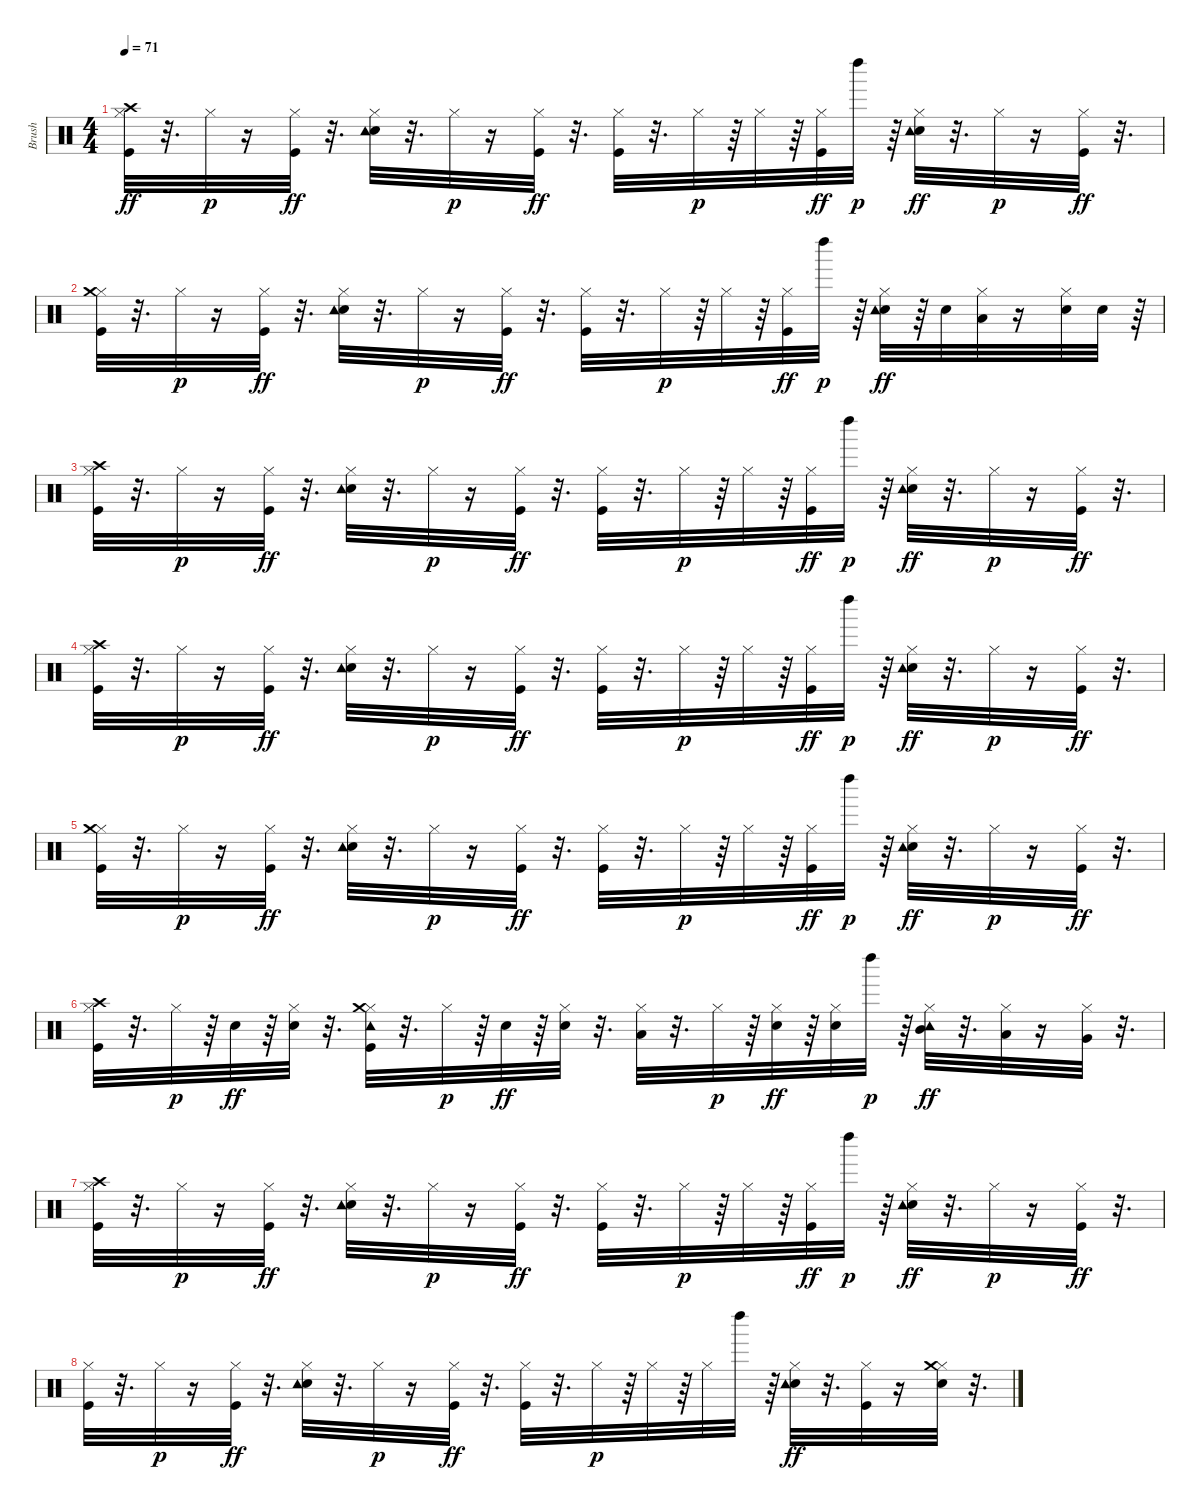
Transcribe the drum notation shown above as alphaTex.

\track ("Brush               " "Brush     ") {instrument percussion}
\staff {score}
\articulation defaults
\ts (4 4)
\tempo 71
\clef neutral
\ks c
("Hi-Hat (closed)" "Kick (hit)" "Crash high (hit)").32{dy ff} r.32{d} "Hi-Hat (closed)".32{dy p} r.16 ("Hi-Hat (closed)" "Kick (hit)").32{dy ff} r.32{d} ("Hi-Hat (closed)" "Snare (hit) 2" "Tambourine (hit)").32 r.32{d} "Hi-Hat (closed)".32{dy p} r.16 ("Hi-Hat (closed)" "Kick (hit)").32{dy ff} r.32{d} ("Hi-Hat (closed)" "Kick (hit)").32 r.32{d} "Hi-Hat (closed)".32{dy p} r.64 "Hi-Hat (closed)".32 r.64 ("Hi-Hat (closed)" "Kick (hit)").32{dy ff} "Left Maraca (hit)".32{dy p} r.64 ("Hi-Hat (closed)" "Snare (hit) 2" "Tambourine (hit)").32{dy ff} r.32{d} "Hi-Hat (closed)".32{dy p} r.16 ("Hi-Hat (closed)" "Kick (hit)").32{dy ff} r.32{d} |
("Hi-Hat (closed)" "Kick (hit)" "Crash medium (hit)").32 r.32{d} "Hi-Hat (closed)".32{dy p} r.16 ("Hi-Hat (closed)" "Kick (hit)").32{dy ff} r.32{d} ("Hi-Hat (closed)" "Snare (hit) 2" "Tambourine (hit)").32 r.32{d} "Hi-Hat (closed)".32{dy p} r.16 ("Hi-Hat (closed)" "Kick (hit)").32{dy ff} r.32{d} ("Hi-Hat (closed)" "Kick (hit)").32 r.32{d} "Hi-Hat (closed)".32{dy p} r.64 "Hi-Hat (closed)".32 r.64 ("Hi-Hat (closed)" "Kick (hit)").32{dy ff} "Left Maraca (hit)".32{dy p} r.64 ("Hi-Hat (closed)" "Snare (hit) 2" "Tambourine (hit)").32{dy ff} r.64 "Snare (hit) 2".32 ("Hi-Hat (closed)" "Low Tom (hit)").32 r.16 ("Hi-Hat (closed)" "Snare (hit) 2").32 "Snare (hit) 2".32 r.64 |
("Hi-Hat (closed)" "Kick (hit)" "Crash high (hit)").32 r.32{d} "Hi-Hat (closed)".32{dy p} r.16 ("Hi-Hat (closed)" "Kick (hit)").32{dy ff} r.32{d} ("Hi-Hat (closed)" "Snare (hit) 2" "Tambourine (hit)").32 r.32{d} "Hi-Hat (closed)".32{dy p} r.16 ("Hi-Hat (closed)" "Kick (hit)").32{dy ff} r.32{d} ("Hi-Hat (closed)" "Kick (hit)").32 r.32{d} "Hi-Hat (closed)".32{dy p} r.64 "Hi-Hat (closed)".32 r.64 ("Hi-Hat (closed)" "Kick (hit)").32{dy ff} "Left Maraca (hit)".32{dy p} r.64 ("Hi-Hat (closed)" "Snare (hit) 2" "Tambourine (hit)").32{dy ff} r.32{d} "Hi-Hat (closed)".32{dy p} r.16 ("Hi-Hat (closed)" "Kick (hit)").32{dy ff} r.32{d} |
("Hi-Hat (closed)" "Kick (hit)" "Crash high (hit)").32 r.32{d} "Hi-Hat (closed)".32{dy p} r.16 ("Hi-Hat (closed)" "Kick (hit)").32{dy ff} r.32{d} ("Hi-Hat (closed)" "Snare (hit) 2" "Tambourine (hit)").32 r.32{d} "Hi-Hat (closed)".32{dy p} r.16 ("Hi-Hat (closed)" "Kick (hit)").32{dy ff} r.32{d} ("Hi-Hat (closed)" "Kick (hit)").32 r.32{d} "Hi-Hat (closed)".32{dy p} r.64 "Hi-Hat (closed)".32 r.64 ("Hi-Hat (closed)" "Kick (hit)").32{dy ff} "Left Maraca (hit)".32{dy p} r.64 ("Hi-Hat (closed)" "Snare (hit) 2" "Tambourine (hit)").32{dy ff} r.32{d} "Hi-Hat (closed)".32{dy p} r.16 ("Hi-Hat (closed)" "Kick (hit)").32{dy ff} r.32{d} |
("Hi-Hat (closed)" "Kick (hit)" "Crash medium (hit)").32 r.32{d} "Hi-Hat (closed)".32{dy p} r.16 ("Hi-Hat (closed)" "Kick (hit)").32{dy ff} r.32{d} ("Hi-Hat (closed)" "Snare (hit) 2" "Tambourine (hit)").32 r.32{d} "Hi-Hat (closed)".32{dy p} r.16 ("Hi-Hat (closed)" "Kick (hit)").32{dy ff} r.32{d} ("Hi-Hat (closed)" "Kick (hit)").32 r.32{d} "Hi-Hat (closed)".32{dy p} r.64 "Hi-Hat (closed)".32 r.64 ("Hi-Hat (closed)" "Kick (hit)").32{dy ff} "Left Maraca (hit)".32{dy p} r.64 ("Hi-Hat (closed)" "Snare (hit) 2" "Tambourine (hit)").32{dy ff} r.32{d} "Hi-Hat (closed)".32{dy p} r.16 ("Hi-Hat (closed)" "Kick (hit)").32{dy ff} r.32{d} |
("Hi-Hat (closed)" "Kick (hit)" "Crash high (hit)").32 r.32{d} "Hi-Hat (closed)".32{dy p} r.64 "Snare (hit) 2".32{dy ff} r.64 ("Hi-Hat (closed)" "Snare (hit) 2").32 r.32{d} ("Hi-Hat (closed)" "Tambourine (hit)" "Kick (hit)" "Crash medium (hit)").32 r.32{d} "Hi-Hat (closed)".32{dy p} r.64 "Snare (hit) 2".32{dy ff} r.64 ("Hi-Hat (closed)" "Snare (hit) 2").32 r.32{d} ("Hi-Hat (closed)" "Low Tom (hit)").32 r.32{d} "Hi-Hat (closed)".32{dy p} r.64 ("Hi-Hat (closed)" "Snare (hit) 2").32{dy ff} r.64 ("Hi-Hat (closed)" "Snare (hit) 2").32 "Left Maraca (hit)".32{dy p} r.64 ("Hi-Hat (closed)" "Tambourine (hit)" "Mid Tom (hit)").32{dy ff} r.32{d} ("Hi-Hat (closed)" "Low Tom (hit)").32 r.16 ("Hi-Hat (closed)" "Very Low Tom (hit)").32 r.32{d} |
("Hi-Hat (closed)" "Kick (hit)" "Crash high (hit)").32 r.32{d} "Hi-Hat (closed)".32{dy p} r.16 ("Hi-Hat (closed)" "Kick (hit)").32{dy ff} r.32{d} ("Hi-Hat (closed)" "Snare (hit) 2" "Tambourine (hit)").32 r.32{d} "Hi-Hat (closed)".32{dy p} r.16 ("Hi-Hat (closed)" "Kick (hit)").32{dy ff} r.32{d} ("Hi-Hat (closed)" "Kick (hit)").32 r.32{d} "Hi-Hat (closed)".32{dy p} r.64 "Hi-Hat (closed)".32 r.64 ("Hi-Hat (closed)" "Kick (hit)").32{dy ff} "Left Maraca (hit)".32{dy p} r.64 ("Hi-Hat (closed)" "Snare (hit) 2" "Tambourine (hit)").32{dy ff} r.32{d} "Hi-Hat (closed)".32{dy p} r.16 ("Hi-Hat (closed)" "Kick (hit)").32{dy ff} r.32{d} |
("Hi-Hat (closed)" "Kick (hit)").32 r.32{d} "Hi-Hat (closed)".32{dy p} r.16 ("Hi-Hat (closed)" "Kick (hit)").32{dy ff} r.32{d} ("Hi-Hat (closed)" "Snare (hit) 2" "Tambourine (hit)").32 r.32{d} "Hi-Hat (closed)".32{dy p} r.16 ("Hi-Hat (closed)" "Kick (hit)").32{dy ff} r.32{d} ("Hi-Hat (closed)" "Kick (hit)").32 r.32{d} "Hi-Hat (closed)".32{dy p} r.64 "Hi-Hat (closed)".32 r.64 "Hi-Hat (closed)".32 "Left Maraca (hit)".32 r.64 ("Hi-Hat (closed)" "Snare (hit) 2" "Tambourine (hit)").32{dy ff} r.32{d} ("Hi-Hat (closed)" "Kick (hit)").32 r.16 ("Hi-Hat (closed)" "Snare (hit) 2" "Crash medium (hit)").32 r.32{d}
